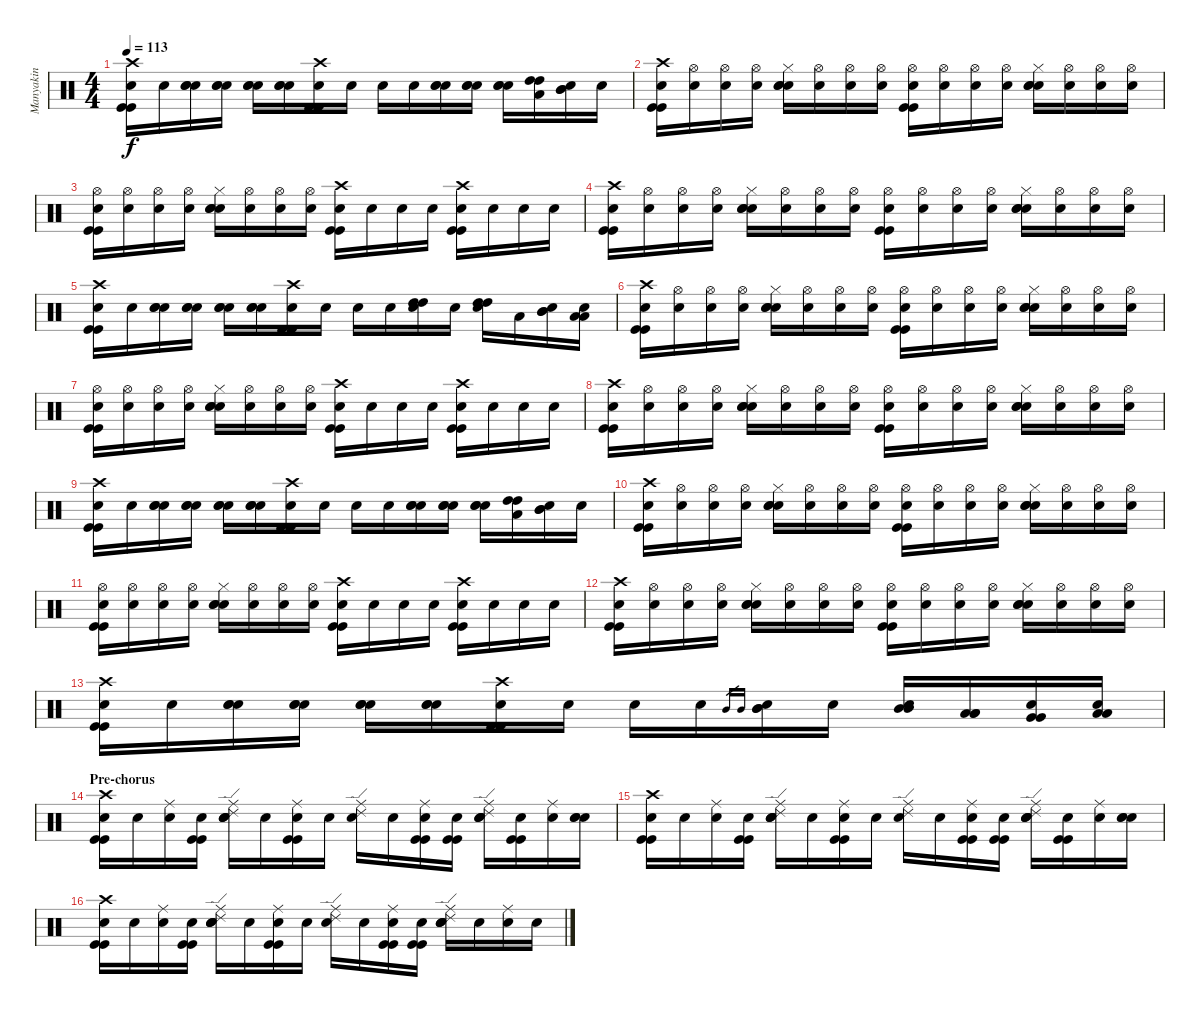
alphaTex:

\track ("Manyakin" "Manyakin") {instrument percussion}
\staff {score}
\articulation defaults
\ts (4 4)
\tempo 113
\clef neutral
\ks c
("Crash high (hit)" "Kick (hit)" "Kick (hit)" "Snare (hit)"{x}).16{dy f} "Snare (hit)"{x}.16 ("Electric Snare (hit)" "Electric Snare (hit)" "Snare (hit)"{x}).16 ("Electric Snare (hit)" "Electric Snare (hit)" "Snare (hit)"{x}).16 ("Electric Snare (hit)" "Electric Snare (hit)" "Snare (hit)"{x}).16 ("Electric Snare (hit)" "Electric Snare (hit)" "Snare (hit)"{x}).16 ("Crash high (hit)" "Kick (hit)" "Kick (hit)" "Snare (hit)"{x}).16 "Snare (hit)"{x}.16 "Snare (hit)"{x}.16 "Snare (hit)"{x}.16 ("Electric Snare (hit)" "Electric Snare (hit)" "Snare (hit)"{x}).16 ("Electric Snare (hit)" "Electric Snare (hit)" "Snare (hit)"{x}).16 ("Electric Snare (hit)" "Electric Snare (hit)" "Snare (hit)"{x}).16 ("High Tom (hit)" "High Tom (hit)" "Low Tom (hit)"{x}).16 ("Mid Tom (hit)" "Mid Tom (hit)" "Snare (hit)"{x}).16 "Snare (hit)"{x}.16 |
("Crash high (hit)" "Kick (hit)" "Kick (hit)" "Snare (hit)"{x}).16 ("Hi-Hat (open)" "Snare (hit)"{x}).16 ("Hi-Hat (open)" "Snare (hit)"{x}).16 ("Hi-Hat (open)" "Snare (hit)"{x}).16 ("Hi-Hat (closed)" "Electric Snare (hit)" "Electric Snare (hit)" "Snare (hit)"{x}).16 ("Hi-Hat (open)" "Snare (hit)"{x}).16 ("Hi-Hat (open)" "Snare (hit)"{x}).16 ("Hi-Hat (open)" "Snare (hit)"{x}).16 ("Hi-Hat (open)" "Kick (hit)" "Kick (hit)" "Snare (hit)"{x}).16 ("Hi-Hat (open)" "Snare (hit)"{x}).16 ("Hi-Hat (open)" "Snare (hit)"{x}).16 ("Hi-Hat (open)" "Snare (hit)"{x}).16 ("Hi-Hat (closed)" "Electric Snare (hit)" "Electric Snare (hit)" "Snare (hit)"{x}).16 ("Hi-Hat (open)" "Snare (hit)"{x}).16 ("Hi-Hat (open)" "Snare (hit)"{x}).16 ("Hi-Hat (open)" "Snare (hit)"{x}).16 |
("Hi-Hat (open)" "Kick (hit)" "Kick (hit)" "Snare (hit)"{x}).16 ("Hi-Hat (open)" "Snare (hit)"{x}).16 ("Hi-Hat (open)" "Snare (hit)"{x}).16 ("Hi-Hat (open)" "Snare (hit)"{x}).16 ("Hi-Hat (closed)" "Electric Snare (hit)" "Electric Snare (hit)" "Snare (hit)"{x}).16 ("Hi-Hat (open)" "Snare (hit)"{x}).16 ("Hi-Hat (open)" "Snare (hit)"{x}).16 ("Hi-Hat (open)" "Snare (hit)"{x}).16 ("Crash high (hit)" "Kick (hit)" "Kick (hit)" "Snare (hit)"{x}).16 "Snare (hit)"{x}.16 "Snare (hit)"{x}.16 "Snare (hit)"{x}.16 ("Crash high (hit)" "Kick (hit)" "Kick (hit)" "Snare (hit)"{x}).16 "Snare (hit)"{x}.16 "Snare (hit)"{x}.16 "Snare (hit)"{x}.16 |
("Crash high (hit)" "Kick (hit)" "Kick (hit)" "Snare (hit)"{x}).16 ("Hi-Hat (open)" "Snare (hit)"{x}).16 ("Hi-Hat (open)" "Snare (hit)"{x}).16 ("Hi-Hat (open)" "Snare (hit)"{x}).16 ("Hi-Hat (closed)" "Electric Snare (hit)" "Electric Snare (hit)" "Snare (hit)"{x}).16 ("Hi-Hat (open)" "Snare (hit)"{x}).16 ("Hi-Hat (open)" "Snare (hit)"{x}).16 ("Hi-Hat (open)" "Snare (hit)"{x}).16 ("Hi-Hat (open)" "Kick (hit)" "Kick (hit)" "Snare (hit)"{x}).16 ("Hi-Hat (open)" "Snare (hit)"{x}).16 ("Hi-Hat (open)" "Snare (hit)"{x}).16 ("Hi-Hat (open)" "Snare (hit)"{x}).16 ("Hi-Hat (closed)" "Electric Snare (hit)" "Electric Snare (hit)" "Snare (hit)"{x}).16 ("Hi-Hat (open)" "Snare (hit)"{x}).16 ("Hi-Hat (open)" "Snare (hit)"{x}).16 ("Hi-Hat (open)" "Snare (hit)"{x}).16 |
("Crash high (hit)" "Kick (hit)" "Kick (hit)" "Snare (hit)"{x}).16 "Snare (hit)"{x}.16 ("Electric Snare (hit)" "Electric Snare (hit)" "Snare (hit)"{x}).16 ("Electric Snare (hit)" "Electric Snare (hit)" "Snare (hit)"{x}).16 ("Electric Snare (hit)" "Electric Snare (hit)" "Snare (hit)"{x}).16 ("Electric Snare (hit)" "Electric Snare (hit)" "Snare (hit)"{x}).16 ("Crash high (hit)" "Kick (hit)" "Kick (hit)" "Snare (hit)"{x}).16 "Snare (hit)"{x}.16 "Snare (hit)"{x}.16 "Snare (hit)"{x}.16 ("High Tom (hit)" "High Tom (hit)" "Snare (hit)"{x}).16 "Snare (hit)"{x}.16 ("High Tom (hit)" "High Tom (hit)" "Snare (hit)"{x}).16 "Low Tom (hit)"{x}.16 ("Mid Tom (hit)" "Mid Tom (hit)" "Snare (hit)"{x}).16 ("Low Tom (hit)" "Low Tom (hit)" "Snare (hit)"{x}).16 |
("Crash high (hit)" "Kick (hit)" "Kick (hit)" "Snare (hit)"{x}).16 ("Hi-Hat (open)" "Snare (hit)"{x}).16 ("Hi-Hat (open)" "Snare (hit)"{x}).16 ("Hi-Hat (open)" "Snare (hit)"{x}).16 ("Hi-Hat (closed)" "Electric Snare (hit)" "Electric Snare (hit)" "Snare (hit)"{x}).16 ("Hi-Hat (open)" "Snare (hit)"{x}).16 ("Hi-Hat (open)" "Snare (hit)"{x}).16 ("Hi-Hat (open)" "Snare (hit)"{x}).16 ("Hi-Hat (open)" "Kick (hit)" "Kick (hit)" "Snare (hit)"{x}).16 ("Hi-Hat (open)" "Snare (hit)"{x}).16 ("Hi-Hat (open)" "Snare (hit)"{x}).16 ("Hi-Hat (open)" "Snare (hit)"{x}).16 ("Hi-Hat (closed)" "Electric Snare (hit)" "Electric Snare (hit)" "Snare (hit)"{x}).16 ("Hi-Hat (open)" "Snare (hit)"{x}).16 ("Hi-Hat (open)" "Snare (hit)"{x}).16 ("Hi-Hat (open)" "Snare (hit)"{x}).16 |
("Hi-Hat (open)" "Kick (hit)" "Kick (hit)" "Snare (hit)"{x}).16 ("Hi-Hat (open)" "Snare (hit)"{x}).16 ("Hi-Hat (open)" "Snare (hit)"{x}).16 ("Hi-Hat (open)" "Snare (hit)"{x}).16 ("Hi-Hat (closed)" "Electric Snare (hit)" "Electric Snare (hit)" "Snare (hit)"{x}).16 ("Hi-Hat (open)" "Snare (hit)"{x}).16 ("Hi-Hat (open)" "Snare (hit)"{x}).16 ("Hi-Hat (open)" "Snare (hit)"{x}).16 ("Crash high (hit)" "Kick (hit)" "Kick (hit)" "Snare (hit)"{x}).16 "Snare (hit)"{x}.16 "Snare (hit)"{x}.16 "Snare (hit)"{x}.16 ("Crash high (hit)" "Kick (hit)" "Kick (hit)" "Snare (hit)"{x}).16 "Snare (hit)"{x}.16 "Snare (hit)"{x}.16 "Snare (hit)"{x}.16 |
("Crash high (hit)" "Kick (hit)" "Kick (hit)" "Snare (hit)"{x}).16 ("Hi-Hat (open)" "Snare (hit)"{x}).16 ("Hi-Hat (open)" "Snare (hit)"{x}).16 ("Hi-Hat (open)" "Snare (hit)"{x}).16 ("Hi-Hat (closed)" "Electric Snare (hit)" "Electric Snare (hit)" "Snare (hit)"{x}).16 ("Hi-Hat (open)" "Snare (hit)"{x}).16 ("Hi-Hat (open)" "Snare (hit)"{x}).16 ("Hi-Hat (open)" "Snare (hit)"{x}).16 ("Hi-Hat (open)" "Kick (hit)" "Kick (hit)" "Snare (hit)"{x}).16 ("Hi-Hat (open)" "Snare (hit)"{x}).16 ("Hi-Hat (open)" "Snare (hit)"{x}).16 ("Hi-Hat (open)" "Snare (hit)"{x}).16 ("Hi-Hat (closed)" "Electric Snare (hit)" "Electric Snare (hit)" "Snare (hit)"{x}).16 ("Hi-Hat (open)" "Snare (hit)"{x}).16 ("Hi-Hat (open)" "Snare (hit)"{x}).16 ("Hi-Hat (open)" "Snare (hit)"{x}).16 |
("Crash high (hit)" "Kick (hit)" "Kick (hit)" "Snare (hit)"{x}).16 "Snare (hit)"{x}.16 ("Electric Snare (hit)" "Electric Snare (hit)" "Snare (hit)"{x}).16 ("Electric Snare (hit)" "Electric Snare (hit)" "Snare (hit)"{x}).16 ("Electric Snare (hit)" "Electric Snare (hit)" "Snare (hit)"{x}).16 ("Electric Snare (hit)" "Electric Snare (hit)" "Snare (hit)"{x}).16 ("Crash high (hit)" "Kick (hit)" "Kick (hit)" "Snare (hit)"{x}).16 "Snare (hit)"{x}.16 "Snare (hit)"{x}.16 "Snare (hit)"{x}.16 ("Electric Snare (hit)" "Electric Snare (hit)" "Snare (hit)"{x}).16 ("Electric Snare (hit)" "Electric Snare (hit)" "Snare (hit)"{x}).16 ("Electric Snare (hit)" "Electric Snare (hit)" "Snare (hit)"{x}).16 ("High Tom (hit)" "High Tom (hit)" "Low Tom (hit)"{x}).16 ("Mid Tom (hit)" "Mid Tom (hit)" "Snare (hit)"{x}).16 "Snare (hit)"{x}.16 |
("Crash high (hit)" "Kick (hit)" "Kick (hit)" "Snare (hit)"{x}).16 ("Hi-Hat (open)" "Snare (hit)"{x}).16 ("Hi-Hat (open)" "Snare (hit)"{x}).16 ("Hi-Hat (open)" "Snare (hit)"{x}).16 ("Hi-Hat (closed)" "Electric Snare (hit)" "Electric Snare (hit)" "Snare (hit)"{x}).16 ("Hi-Hat (open)" "Snare (hit)"{x}).16 ("Hi-Hat (open)" "Snare (hit)"{x}).16 ("Hi-Hat (open)" "Snare (hit)"{x}).16 ("Hi-Hat (open)" "Kick (hit)" "Kick (hit)" "Snare (hit)"{x}).16 ("Hi-Hat (open)" "Snare (hit)"{x}).16 ("Hi-Hat (open)" "Snare (hit)"{x}).16 ("Hi-Hat (open)" "Snare (hit)"{x}).16 ("Hi-Hat (closed)" "Electric Snare (hit)" "Electric Snare (hit)" "Snare (hit)"{x}).16 ("Hi-Hat (open)" "Snare (hit)"{x}).16 ("Hi-Hat (open)" "Snare (hit)"{x}).16 ("Hi-Hat (open)" "Snare (hit)"{x}).16 |
("Hi-Hat (open)" "Kick (hit)" "Kick (hit)" "Snare (hit)"{x}).16 ("Hi-Hat (open)" "Snare (hit)"{x}).16 ("Hi-Hat (open)" "Snare (hit)"{x}).16 ("Hi-Hat (open)" "Snare (hit)"{x}).16 ("Hi-Hat (closed)" "Electric Snare (hit)" "Electric Snare (hit)" "Snare (hit)"{x}).16 ("Hi-Hat (open)" "Snare (hit)"{x}).16 ("Hi-Hat (open)" "Snare (hit)"{x}).16 ("Hi-Hat (open)" "Snare (hit)"{x}).16 ("Crash high (hit)" "Kick (hit)" "Kick (hit)" "Snare (hit)"{x}).16 "Snare (hit)"{x}.16 "Snare (hit)"{x}.16 "Snare (hit)"{x}.16 ("Crash high (hit)" "Kick (hit)" "Kick (hit)" "Snare (hit)"{x}).16 "Snare (hit)"{x}.16 "Snare (hit)"{x}.16 "Snare (hit)"{x}.16 |
("Crash high (hit)" "Kick (hit)" "Kick (hit)" "Snare (hit)"{x}).16 ("Hi-Hat (open)" "Snare (hit)"{x}).16 ("Hi-Hat (open)" "Snare (hit)"{x}).16 ("Hi-Hat (open)" "Snare (hit)"{x}).16 ("Hi-Hat (closed)" "Electric Snare (hit)" "Electric Snare (hit)" "Snare (hit)"{x}).16 ("Hi-Hat (open)" "Snare (hit)"{x}).16 ("Hi-Hat (open)" "Snare (hit)"{x}).16 ("Hi-Hat (open)" "Snare (hit)"{x}).16 ("Hi-Hat (open)" "Kick (hit)" "Kick (hit)" "Snare (hit)"{x}).16 ("Hi-Hat (open)" "Snare (hit)"{x}).16 ("Hi-Hat (open)" "Snare (hit)"{x}).16 ("Hi-Hat (open)" "Snare (hit)"{x}).16 ("Hi-Hat (closed)" "Electric Snare (hit)" "Electric Snare (hit)" "Snare (hit)"{x}).16 ("Hi-Hat (open)" "Snare (hit)"{x}).16 ("Hi-Hat (open)" "Snare (hit)"{x}).16 ("Hi-Hat (open)" "Snare (hit)"{x}).16 |
("Crash high (hit)" "Kick (hit)" "Kick (hit)" "Snare (hit)"{x}).16 "Snare (hit)"{x}.16 ("Electric Snare (hit)" "Electric Snare (hit)" "Snare (hit)"{x}).16 ("Electric Snare (hit)" "Electric Snare (hit)" "Snare (hit)"{x}).16 ("Electric Snare (hit)" "Electric Snare (hit)" "Snare (hit)"{x}).16 ("Electric Snare (hit)" "Electric Snare (hit)" "Snare (hit)"{x}).16 ("Crash high (hit)" "Kick (hit)" "Kick (hit)" "Snare (hit)"{x}).16 "Snare (hit)"{x}.16 "Snare (hit)"{x}.16 "Snare (hit)"{x}.16 "Mid Tom (hit)".16{gr} "Mid Tom (hit)".16{gr} ("Mid Tom (hit)" "Mid Tom (hit)" "Snare (hit)"{x}).16 "Snare (hit)"{x}.16 ("Mid Tom (hit)" "Mid Tom (hit)" "Snare (hit)"{x}).16 ("Low Tom (hit)" "Low Tom (hit)" "Low Tom (hit)"{x}).16 ("Very Low Tom (hit)" "Very Low Tom (hit)" "Snare (hit)"{x}).16 ("Low Floor Tom (hit)" "Low Floor Tom (hit)" "Snare (hit)"{x}).16 |
\section ("" "Pre-chorus")
("Crash high (hit)" "Kick (hit)" "Kick (hit)" "Snare (hit)"{x}).16 "Snare (hit)"{x}.16 ("Ride (middle)" "Snare (hit)"{x}).16 ("Kick (hit)" "Kick (hit)" "Snare (hit)"{x}).16 ("Ride (middle)" "Ride (edge) 2" "Electric Snare (hit)" "Electric Snare (hit)" "Snare (hit)"{x}).16 "Snare (hit)"{x}.16 ("Ride (middle)" "Kick (hit)" "Kick (hit)" "Snare (hit)"{x}).16 "Snare (hit)"{x}.16 ("Ride (middle)" "Ride (edge) 2" "Snare (hit)"{x}).16 "Snare (hit)"{x}.16 ("Ride (middle)" "Kick (hit)" "Kick (hit)" "Snare (hit)"{x}).16 ("Kick (hit)" "Kick (hit)" "Snare (hit)"{x}).16 ("Ride (middle)" "Ride (edge) 2" "Electric Snare (hit)" "Electric Snare (hit)" "Snare (hit)"{x}).16 ("Kick (hit)" "Kick (hit)" "Snare (hit)"{x}).16 ("Ride (middle)" "Snare (hit)"{x}).16 ("Electric Snare (hit)" "Electric Snare (hit)" "Snare (hit)"{x}).16 |
("Crash high (hit)" "Kick (hit)" "Kick (hit)" "Snare (hit)"{x}).16 "Snare (hit)"{x}.16 ("Ride (middle)" "Snare (hit)"{x}).16 ("Kick (hit)" "Kick (hit)" "Snare (hit)"{x}).16 ("Ride (middle)" "Ride (edge) 2" "Electric Snare (hit)" "Electric Snare (hit)" "Snare (hit)"{x}).16 "Snare (hit)"{x}.16 ("Ride (middle)" "Kick (hit)" "Kick (hit)" "Snare (hit)"{x}).16 "Snare (hit)"{x}.16 ("Ride (middle)" "Ride (edge) 2" "Snare (hit)"{x}).16 "Snare (hit)"{x}.16 ("Ride (middle)" "Kick (hit)" "Kick (hit)" "Snare (hit)"{x}).16 ("Kick (hit)" "Kick (hit)" "Snare (hit)"{x}).16 ("Ride (middle)" "Ride (edge) 2" "Electric Snare (hit)" "Electric Snare (hit)" "Snare (hit)"{x}).16 ("Kick (hit)" "Kick (hit)" "Snare (hit)"{x}).16 ("Ride (middle)" "Snare (hit)"{x}).16 ("Electric Snare (hit)" "Electric Snare (hit)" "Snare (hit)"{x}).16 |
("Crash high (hit)" "Kick (hit)" "Kick (hit)" "Snare (hit)"{x}).16 "Snare (hit)"{x}.16 ("Ride (middle)" "Snare (hit)"{x}).16 ("Kick (hit)" "Kick (hit)" "Snare (hit)"{x}).16 ("Ride (middle)" "Ride (edge) 2" "Electric Snare (hit)" "Electric Snare (hit)" "Snare (hit)"{x}).16 "Snare (hit)"{x}.16 ("Ride (middle)" "Kick (hit)" "Kick (hit)" "Snare (hit)"{x}).16 "Snare (hit)"{x}.16 ("Ride (middle)" "Ride (edge) 2" "Snare (hit)"{x}).16 "Snare (hit)"{x}.16 ("Ride (middle)" "Kick (hit)" "Kick (hit)" "Snare (hit)"{x}).16 ("Kick (hit)" "Kick (hit)" "Snare (hit)"{x}).16 ("Ride (middle)" "Ride (edge) 2" "Electric Snare (hit)" "Electric Snare (hit)" "Snare (hit)"{x}).16 "Snare (hit)"{x}.16 ("Ride (middle)" "Snare (hit)"{x}).16 "Snare (hit)"{x}.16
